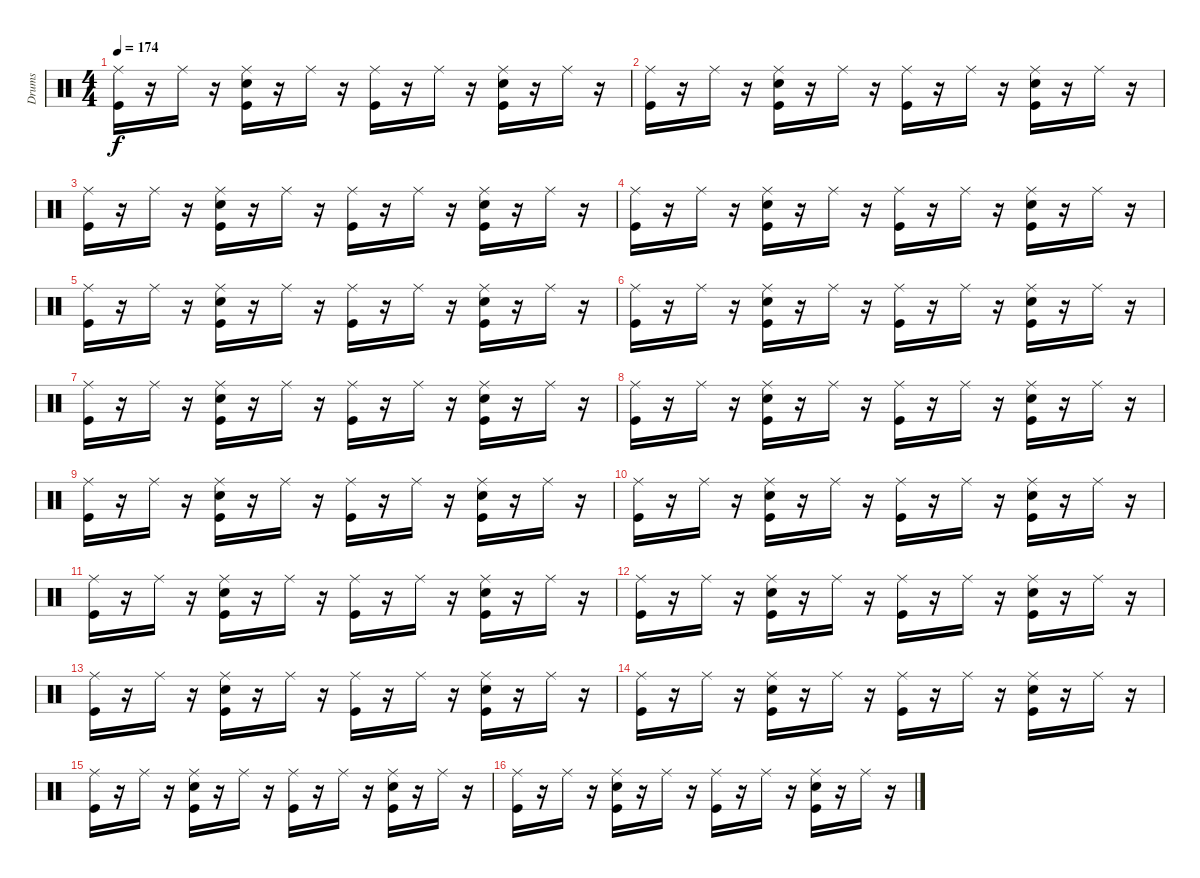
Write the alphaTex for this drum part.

\track ("Drums" "Drums") {instrument percussion}
\staff {score}
\articulation defaults
\ts (4 4)
\tempo 174
\clef neutral
\ks c
("Kick (hit)" "Ride (middle)").16{dy f} r.16 "Ride (middle)".16 r.16 ("Kick (hit)" "Snare (hit) 2" "Ride (middle)").16 r.16 "Ride (middle)".16 r.16 ("Kick (hit)" "Ride (middle)").16 r.16 "Ride (middle)".16 r.16 ("Kick (hit)" "Snare (hit) 2" "Ride (middle)").16 r.16 "Ride (middle)".16 r.16 |
("Kick (hit)" "Ride (middle)").16 r.16 "Ride (middle)".16 r.16 ("Kick (hit)" "Snare (hit) 2" "Ride (middle)").16 r.16 "Ride (middle)".16 r.16 ("Kick (hit)" "Ride (middle)").16 r.16 "Ride (middle)".16 r.16 ("Kick (hit)" "Snare (hit) 2" "Ride (middle)").16 r.16 "Ride (middle)".16 r.16 |
("Kick (hit)" "Ride (middle)").16 r.16 "Ride (middle)".16 r.16 ("Kick (hit)" "Snare (hit) 2" "Ride (middle)").16 r.16 "Ride (middle)".16 r.16 ("Kick (hit)" "Ride (middle)").16 r.16 "Ride (middle)".16 r.16 ("Kick (hit)" "Snare (hit) 2" "Ride (middle)").16 r.16 "Ride (middle)".16 r.16 |
("Kick (hit)" "Ride (middle)").16 r.16 "Ride (middle)".16 r.16 ("Kick (hit)" "Snare (hit) 2" "Ride (middle)").16 r.16 "Ride (middle)".16 r.16 ("Kick (hit)" "Ride (middle)").16 r.16 "Ride (middle)".16 r.16 ("Kick (hit)" "Snare (hit) 2" "Ride (middle)").16 r.16 "Ride (middle)".16 r.16 |
("Kick (hit)" "Ride (middle)").16 r.16 "Ride (middle)".16 r.16 ("Kick (hit)" "Snare (hit) 2" "Ride (middle)").16 r.16 "Ride (middle)".16 r.16 ("Kick (hit)" "Ride (middle)").16 r.16 "Ride (middle)".16 r.16 ("Kick (hit)" "Snare (hit) 2" "Ride (middle)").16 r.16 "Ride (middle)".16 r.16 |
("Kick (hit)" "Ride (middle)").16 r.16 "Ride (middle)".16 r.16 ("Kick (hit)" "Snare (hit) 2" "Ride (middle)").16 r.16 "Ride (middle)".16 r.16 ("Kick (hit)" "Ride (middle)").16 r.16 "Ride (middle)".16 r.16 ("Kick (hit)" "Snare (hit) 2" "Ride (middle)").16 r.16 "Ride (middle)".16 r.16 |
("Kick (hit)" "Ride (middle)").16 r.16 "Ride (middle)".16 r.16 ("Kick (hit)" "Snare (hit) 2" "Ride (middle)").16 r.16 "Ride (middle)".16 r.16 ("Kick (hit)" "Ride (middle)").16 r.16 "Ride (middle)".16 r.16 ("Kick (hit)" "Snare (hit) 2" "Ride (middle)").16 r.16 "Ride (middle)".16 r.16 |
("Kick (hit)" "Ride (middle)").16 r.16 "Ride (middle)".16 r.16 ("Kick (hit)" "Snare (hit) 2" "Ride (middle)").16 r.16 "Ride (middle)".16 r.16 ("Kick (hit)" "Ride (middle)").16 r.16 "Ride (middle)".16 r.16 ("Kick (hit)" "Snare (hit) 2" "Ride (middle)").16 r.16 "Ride (middle)".16 r.16 |
("Kick (hit)" "Ride (middle)").16 r.16 "Ride (middle)".16 r.16 ("Kick (hit)" "Snare (hit) 2" "Ride (middle)").16 r.16 "Ride (middle)".16 r.16 ("Kick (hit)" "Ride (middle)").16 r.16 "Ride (middle)".16 r.16 ("Kick (hit)" "Snare (hit) 2" "Ride (middle)").16 r.16 "Ride (middle)".16 r.16 |
("Kick (hit)" "Ride (middle)").16 r.16 "Ride (middle)".16 r.16 ("Kick (hit)" "Snare (hit) 2" "Ride (middle)").16 r.16 "Ride (middle)".16 r.16 ("Kick (hit)" "Ride (middle)").16 r.16 "Ride (middle)".16 r.16 ("Kick (hit)" "Snare (hit) 2" "Ride (middle)").16 r.16 "Ride (middle)".16 r.16 |
("Kick (hit)" "Ride (middle)").16 r.16 "Ride (middle)".16 r.16 ("Kick (hit)" "Snare (hit) 2" "Ride (middle)").16 r.16 "Ride (middle)".16 r.16 ("Kick (hit)" "Ride (middle)").16 r.16 "Ride (middle)".16 r.16 ("Kick (hit)" "Snare (hit) 2" "Ride (middle)").16 r.16 "Ride (middle)".16 r.16 |
("Kick (hit)" "Ride (middle)").16 r.16 "Ride (middle)".16 r.16 ("Kick (hit)" "Snare (hit) 2" "Ride (middle)").16 r.16 "Ride (middle)".16 r.16 ("Kick (hit)" "Ride (middle)").16 r.16 "Ride (middle)".16 r.16 ("Kick (hit)" "Snare (hit) 2" "Ride (middle)").16 r.16 "Ride (middle)".16 r.16 |
("Kick (hit)" "Ride (middle)").16 r.16 "Ride (middle)".16 r.16 ("Kick (hit)" "Snare (hit) 2" "Ride (middle)").16 r.16 "Ride (middle)".16 r.16 ("Kick (hit)" "Ride (middle)").16 r.16 "Ride (middle)".16 r.16 ("Kick (hit)" "Snare (hit) 2" "Ride (middle)").16 r.16 "Ride (middle)".16 r.16 |
("Kick (hit)" "Ride (middle)").16 r.16 "Ride (middle)".16 r.16 ("Kick (hit)" "Snare (hit) 2" "Ride (middle)").16 r.16 "Ride (middle)".16 r.16 ("Kick (hit)" "Ride (middle)").16 r.16 "Ride (middle)".16 r.16 ("Kick (hit)" "Snare (hit) 2" "Ride (middle)").16 r.16 "Ride (middle)".16 r.16 |
("Kick (hit)" "Ride (middle)").16 r.16 "Ride (middle)".16 r.16 ("Kick (hit)" "Snare (hit) 2" "Ride (middle)").16 r.16 "Ride (middle)".16 r.16 ("Kick (hit)" "Ride (middle)").16 r.16 "Ride (middle)".16 r.16 ("Kick (hit)" "Snare (hit) 2" "Ride (middle)").16 r.16 "Ride (middle)".16 r.16 |
("Kick (hit)" "Ride (middle)").16 r.16 "Ride (middle)".16 r.16 ("Kick (hit)" "Snare (hit) 2" "Ride (middle)").16 r.16 "Ride (middle)".16 r.16 ("Kick (hit)" "Ride (middle)").16 r.16 "Ride (middle)".16 r.16 ("Kick (hit)" "Snare (hit) 2" "Ride (middle)").16 r.16 "Ride (middle)".16 r.16
